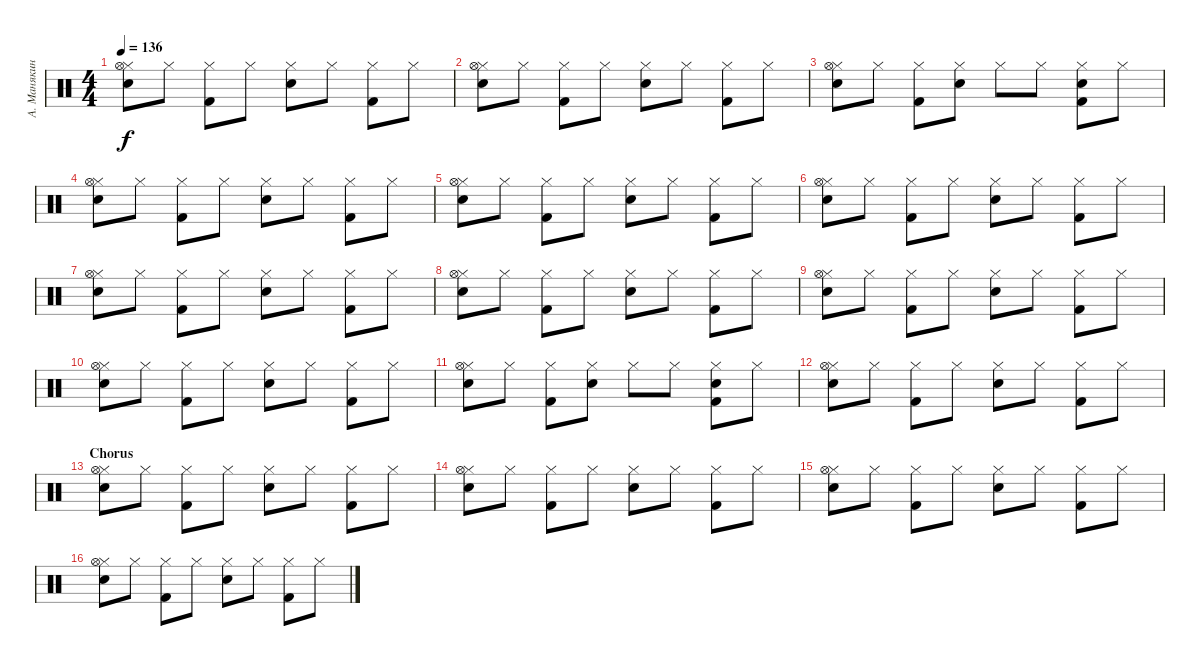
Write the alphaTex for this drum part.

\track ("А. Манякин" "А. Манякин") {instrument percussion}
\staff {score}
\articulation defaults
\ts (4 4)
\tempo 136
\clef neutral
\ks c
("Hi-Hat (closed)" "Snare (hit) 2" "Hi-Hat (open)").8{dy f} "Hi-Hat (closed)".8 ("Hi-Hat (closed)" "Kick (hit) 2").8 "Hi-Hat (closed)".8 ("Hi-Hat (closed)" "Snare (hit) 2").8 "Hi-Hat (closed)".8 ("Hi-Hat (closed)" "Kick (hit) 2").8 "Hi-Hat (closed)".8 |
("Hi-Hat (closed)" "Snare (hit) 2" "Hi-Hat (open)").8 "Hi-Hat (closed)".8 ("Hi-Hat (closed)" "Kick (hit) 2").8 "Hi-Hat (closed)".8 ("Hi-Hat (closed)" "Snare (hit) 2").8 "Hi-Hat (closed)".8 ("Hi-Hat (closed)" "Kick (hit) 2").8 "Hi-Hat (closed)".8 |
("Hi-Hat (closed)" "Snare (hit) 2" "Hi-Hat (open)").8 "Hi-Hat (closed)".8 ("Hi-Hat (closed)" "Kick (hit) 2").8 ("Hi-Hat (closed)" "Snare (hit) 2").8 "Hi-Hat (closed)".8 "Hi-Hat (closed)".8 ("Hi-Hat (closed)" "Kick (hit) 2" "Snare (hit) 2").8 "Hi-Hat (closed)".8 |
("Hi-Hat (closed)" "Snare (hit) 2" "Hi-Hat (open)").8 "Hi-Hat (closed)".8 ("Hi-Hat (closed)" "Kick (hit) 2").8 "Hi-Hat (closed)".8 ("Hi-Hat (closed)" "Snare (hit) 2").8 "Hi-Hat (closed)".8 ("Hi-Hat (closed)" "Kick (hit) 2").8 "Hi-Hat (closed)".8 |
("Hi-Hat (closed)" "Snare (hit) 2" "Hi-Hat (open)").8 "Hi-Hat (closed)".8 ("Hi-Hat (closed)" "Kick (hit) 2").8 "Hi-Hat (closed)".8 ("Hi-Hat (closed)" "Snare (hit) 2").8 "Hi-Hat (closed)".8 ("Hi-Hat (closed)" "Kick (hit) 2").8 "Hi-Hat (closed)".8 |
("Hi-Hat (closed)" "Snare (hit) 2" "Hi-Hat (open)").8 "Hi-Hat (closed)".8 ("Hi-Hat (closed)" "Kick (hit) 2").8 "Hi-Hat (closed)".8 ("Hi-Hat (closed)" "Snare (hit) 2").8 "Hi-Hat (closed)".8 ("Hi-Hat (closed)" "Kick (hit) 2").8 "Hi-Hat (closed)".8 |
("Hi-Hat (closed)" "Snare (hit) 2" "Hi-Hat (open)").8 "Hi-Hat (closed)".8 ("Hi-Hat (closed)" "Kick (hit) 2").8 "Hi-Hat (closed)".8 ("Hi-Hat (closed)" "Snare (hit) 2").8 "Hi-Hat (closed)".8 ("Hi-Hat (closed)" "Kick (hit) 2").8 "Hi-Hat (closed)".8 |
("Hi-Hat (closed)" "Snare (hit) 2" "Hi-Hat (open)").8 "Hi-Hat (closed)".8 ("Hi-Hat (closed)" "Kick (hit) 2").8 "Hi-Hat (closed)".8 ("Hi-Hat (closed)" "Snare (hit) 2").8 "Hi-Hat (closed)".8 ("Hi-Hat (closed)" "Kick (hit) 2").8 "Hi-Hat (closed)".8 |
("Hi-Hat (closed)" "Snare (hit) 2" "Hi-Hat (open)").8 "Hi-Hat (closed)".8 ("Hi-Hat (closed)" "Kick (hit) 2").8 "Hi-Hat (closed)".8 ("Hi-Hat (closed)" "Snare (hit) 2").8 "Hi-Hat (closed)".8 ("Hi-Hat (closed)" "Kick (hit) 2").8 "Hi-Hat (closed)".8 |
("Hi-Hat (closed)" "Snare (hit) 2" "Hi-Hat (open)").8 "Hi-Hat (closed)".8 ("Hi-Hat (closed)" "Kick (hit) 2").8 "Hi-Hat (closed)".8 ("Hi-Hat (closed)" "Snare (hit) 2").8 "Hi-Hat (closed)".8 ("Hi-Hat (closed)" "Kick (hit) 2").8 "Hi-Hat (closed)".8 |
("Hi-Hat (closed)" "Snare (hit) 2" "Hi-Hat (open)").8 "Hi-Hat (closed)".8 ("Hi-Hat (closed)" "Kick (hit) 2").8 ("Hi-Hat (closed)" "Snare (hit) 2").8 "Hi-Hat (closed)".8 "Hi-Hat (closed)".8 ("Hi-Hat (closed)" "Kick (hit) 2" "Snare (hit) 2").8 "Hi-Hat (closed)".8 |
("Hi-Hat (closed)" "Snare (hit) 2" "Hi-Hat (open)").8 "Hi-Hat (closed)".8 ("Hi-Hat (closed)" "Kick (hit) 2").8 "Hi-Hat (closed)".8 ("Hi-Hat (closed)" "Snare (hit) 2").8 "Hi-Hat (closed)".8 ("Hi-Hat (closed)" "Kick (hit) 2").8 "Hi-Hat (closed)".8 |
\section ("" "Chorus")
("Hi-Hat (closed)" "Snare (hit) 2" "Hi-Hat (open)").8 "Hi-Hat (closed)".8 ("Hi-Hat (closed)" "Kick (hit) 2").8 "Hi-Hat (closed)".8 ("Hi-Hat (closed)" "Snare (hit) 2").8 "Hi-Hat (closed)".8 ("Hi-Hat (closed)" "Kick (hit) 2").8 "Hi-Hat (closed)".8 |
("Hi-Hat (closed)" "Snare (hit) 2" "Hi-Hat (open)").8 "Hi-Hat (closed)".8 ("Hi-Hat (closed)" "Kick (hit) 2").8 "Hi-Hat (closed)".8 ("Hi-Hat (closed)" "Snare (hit) 2").8 "Hi-Hat (closed)".8 ("Hi-Hat (closed)" "Kick (hit) 2").8 "Hi-Hat (closed)".8 |
("Hi-Hat (closed)" "Snare (hit) 2" "Hi-Hat (open)").8 "Hi-Hat (closed)".8 ("Hi-Hat (closed)" "Kick (hit) 2").8 "Hi-Hat (closed)".8 ("Hi-Hat (closed)" "Snare (hit) 2").8 "Hi-Hat (closed)".8 ("Hi-Hat (closed)" "Kick (hit) 2").8 "Hi-Hat (closed)".8 |
("Hi-Hat (closed)" "Snare (hit) 2" "Hi-Hat (open)").8 "Hi-Hat (closed)".8 ("Hi-Hat (closed)" "Kick (hit) 2").8 "Hi-Hat (closed)".8 ("Hi-Hat (closed)" "Snare (hit) 2").8 "Hi-Hat (closed)".8 ("Hi-Hat (closed)" "Kick (hit) 2").8 "Hi-Hat (closed)".8
